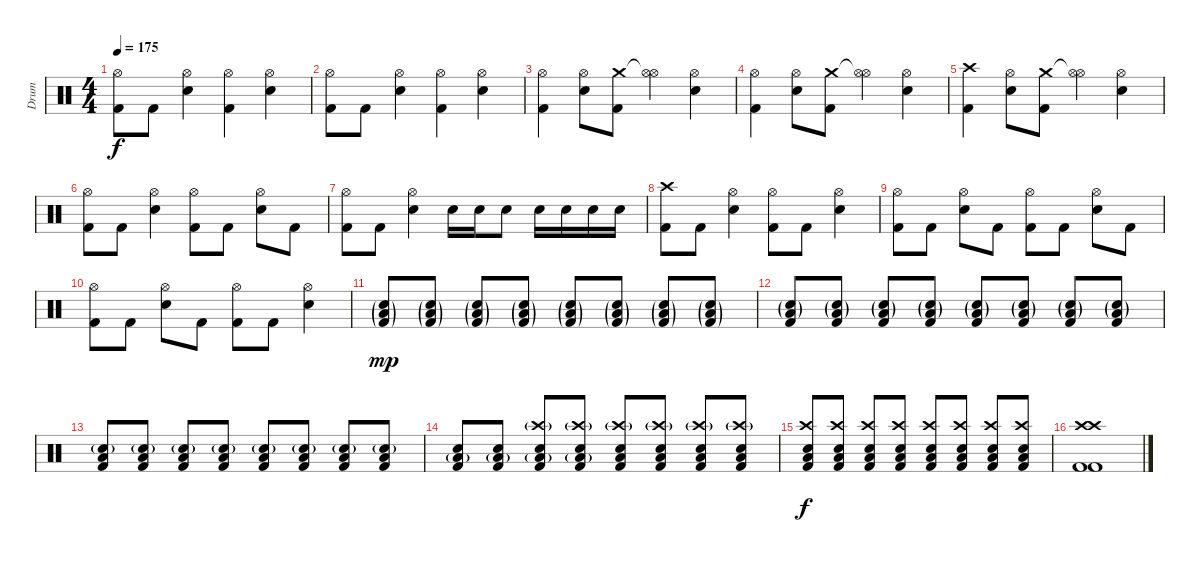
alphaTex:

\track ("Drum" "Drum") {instrument percussion}
\staff {score}
\articulation defaults
\ts (4 4)
\tempo 175
\clef neutral
\ks c
("Hi-Hat (open)" "Kick (hit) 2").8{dy f} "Kick (hit) 2".8 ("Hi-Hat (open)" "Electric Snare (hit)").4 ("Hi-Hat (open)" "Kick (hit) 2").4 ("Hi-Hat (open)" "Electric Snare (hit)").4 |
("Hi-Hat (open)" "Kick (hit) 2").8 "Kick (hit) 2".8 ("Hi-Hat (open)" "Electric Snare (hit)").4 ("Hi-Hat (open)" "Kick (hit) 2").4 ("Hi-Hat (open)" "Electric Snare (hit)").4 |
("Hi-Hat (open)" "Kick (hit) 2").4 ("Hi-Hat (open)" "Electric Snare (hit)").8 ("Crash medium (hit)" "Kick (hit) 2").8 ("Hi-Hat (open)"{t} "Hi-Hat (open)").4 ("Hi-Hat (open)" "Electric Snare (hit)").4 |
("Hi-Hat (open)" "Kick (hit) 2").4 ("Hi-Hat (open)" "Electric Snare (hit)").8 ("Crash medium (hit)" "Kick (hit) 2").8 ("Hi-Hat (open)"{t} "Hi-Hat (open)").4 ("Hi-Hat (open)" "Electric Snare (hit)").4 |
("Crash high (hit)" "Kick (hit) 2").4 ("Hi-Hat (open)" "Electric Snare (hit)").8 ("Crash medium (hit)" "Kick (hit) 2").8 ("Hi-Hat (open)"{t} "Hi-Hat (open)").4 ("Hi-Hat (open)" "Electric Snare (hit)").4 |
("Hi-Hat (open)" "Kick (hit) 2").8 "Kick (hit) 2".8 ("Hi-Hat (open)" "Electric Snare (hit)").4 ("Hi-Hat (open)" "Kick (hit) 2").8 "Kick (hit) 2".8 ("Hi-Hat (open)" "Electric Snare (hit)").8 "Kick (hit) 2".8 |
("Hi-Hat (open)" "Kick (hit) 2").8 "Kick (hit) 2".8 ("Hi-Hat (open)" "Electric Snare (hit)").4 "Electric Snare (hit)".16 "Electric Snare (hit)".16 "Electric Snare (hit)".8 "Electric Snare (hit)".16 "Electric Snare (hit)".16 "Electric Snare (hit)".16 "Electric Snare (hit)".16 |
("Crash high (hit)" "Kick (hit) 2").8 "Kick (hit) 2".8 ("Hi-Hat (open)" "Electric Snare (hit)").4 ("Hi-Hat (open)" "Kick (hit) 2").8 "Kick (hit) 2".8 ("Hi-Hat (open)" "Electric Snare (hit)").4 |
("Hi-Hat (open)" "Kick (hit) 2").8 "Kick (hit) 2".8 ("Hi-Hat (open)" "Electric Snare (hit)").8 "Kick (hit) 2".8 ("Hi-Hat (open)" "Kick (hit) 2").8 "Kick (hit) 2".8 ("Hi-Hat (open)" "Electric Snare (hit)").8 "Kick (hit) 2".8 |
("Hi-Hat (open)" "Kick (hit) 2").8 "Kick (hit) 2".8 ("Hi-Hat (open)" "Electric Snare (hit)").8 "Kick (hit) 2".8 ("Hi-Hat (open)" "Kick (hit) 2").8 "Kick (hit) 2".8 ("Hi-Hat (open)" "Electric Snare (hit)").4 |
("Electric Snare (hit)"{g} "Low Floor Tom (hit)"{g} "Kick (hit) 2"{g}).8{dy mp} ("Electric Snare (hit)"{g} "Low Floor Tom (hit)"{g} "Kick (hit) 2"{g}).8 ("Electric Snare (hit)"{g} "Low Floor Tom (hit)"{g} "Kick (hit) 2"{g}).8 ("Electric Snare (hit)"{g} "Low Floor Tom (hit)"{g} "Kick (hit) 2"{g}).8 ("Electric Snare (hit)"{g} "Low Floor Tom (hit)"{g} "Kick (hit) 2"{g}).8 ("Electric Snare (hit)"{g} "Low Floor Tom (hit)"{g} "Kick (hit) 2"{g}).8 ("Electric Snare (hit)"{g} "Low Floor Tom (hit)"{g} "Kick (hit) 2"{g}).8 ("Electric Snare (hit)"{g} "Low Floor Tom (hit)"{g} "Kick (hit) 2"{g}).8 |
("Electric Snare (hit)"{g} "Low Floor Tom (hit)"{g} "Kick (hit) 2").8 ("Electric Snare (hit)"{g} "Low Floor Tom (hit)"{g} "Kick (hit) 2").8 ("Electric Snare (hit)"{g} "Low Floor Tom (hit)"{g} "Kick (hit) 2").8 ("Electric Snare (hit)"{g} "Low Floor Tom (hit)"{g} "Kick (hit) 2").8 ("Electric Snare (hit)"{g} "Low Floor Tom (hit)"{g} "Kick (hit) 2").8 ("Electric Snare (hit)"{g} "Low Floor Tom (hit)"{g} "Kick (hit) 2").8 ("Electric Snare (hit)"{g} "Low Floor Tom (hit)"{g} "Kick (hit) 2").8 ("Electric Snare (hit)"{g} "Low Floor Tom (hit)"{g} "Kick (hit) 2").8 |
("Electric Snare (hit)"{g} "Low Floor Tom (hit)" "Kick (hit) 2").8 ("Electric Snare (hit)"{g} "Low Floor Tom (hit)" "Kick (hit) 2").8 ("Electric Snare (hit)"{g} "Low Floor Tom (hit)" "Kick (hit) 2").8 ("Electric Snare (hit)"{g} "Low Floor Tom (hit)" "Kick (hit) 2").8 ("Electric Snare (hit)"{g} "Low Floor Tom (hit)" "Kick (hit) 2").8 ("Electric Snare (hit)"{g} "Low Floor Tom (hit)" "Kick (hit) 2").8 ("Electric Snare (hit)"{g} "Low Floor Tom (hit)" "Kick (hit) 2").8 ("Electric Snare (hit)"{g} "Low Floor Tom (hit)" "Kick (hit) 2").8 |
("Electric Snare (hit)" "Low Floor Tom (hit)"{g} "Kick (hit) 2").8 ("Electric Snare (hit)" "Low Floor Tom (hit)"{g} "Kick (hit) 2").8 ("Crash high (hit)"{g} "Electric Snare (hit)" "Low Floor Tom (hit)"{g} "Kick (hit) 2").8 ("Crash high (hit)"{g} "Electric Snare (hit)" "Low Floor Tom (hit)"{g} "Kick (hit) 2").8 ("Crash high (hit)"{g} "Electric Snare (hit)" "Low Floor Tom (hit)" "Kick (hit) 2").8 ("Crash high (hit)"{g} "Electric Snare (hit)" "Low Floor Tom (hit)" "Kick (hit) 2").8 ("Crash high (hit)"{g} "Electric Snare (hit)" "Low Floor Tom (hit)" "Kick (hit) 2").8 ("Crash high (hit)"{g} "Electric Snare (hit)" "Low Floor Tom (hit)" "Kick (hit) 2").8 |
("Crash high (hit)" "Electric Snare (hit)" "Low Floor Tom (hit)" "Kick (hit) 2").8{dy f} ("Crash high (hit)" "Electric Snare (hit)" "Low Floor Tom (hit)" "Kick (hit) 2").8 ("Crash high (hit)" "Electric Snare (hit)" "Low Floor Tom (hit)" "Kick (hit) 2").8 ("Crash high (hit)" "Electric Snare (hit)" "Low Floor Tom (hit)" "Kick (hit) 2").8 ("Crash high (hit)" "Electric Snare (hit)" "Low Floor Tom (hit)" "Kick (hit) 2").8 ("Crash high (hit)" "Electric Snare (hit)" "Low Floor Tom (hit)" "Kick (hit) 2").8 ("Crash high (hit)" "Electric Snare (hit)" "Low Floor Tom (hit)" "Kick (hit) 2").8 ("Crash high (hit)" "Electric Snare (hit)" "Low Floor Tom (hit)" "Kick (hit) 2").8 |
("Crash high (hit)" "Crash high (hit)" "Kick (hit) 2" "Kick (hit) 2").1
